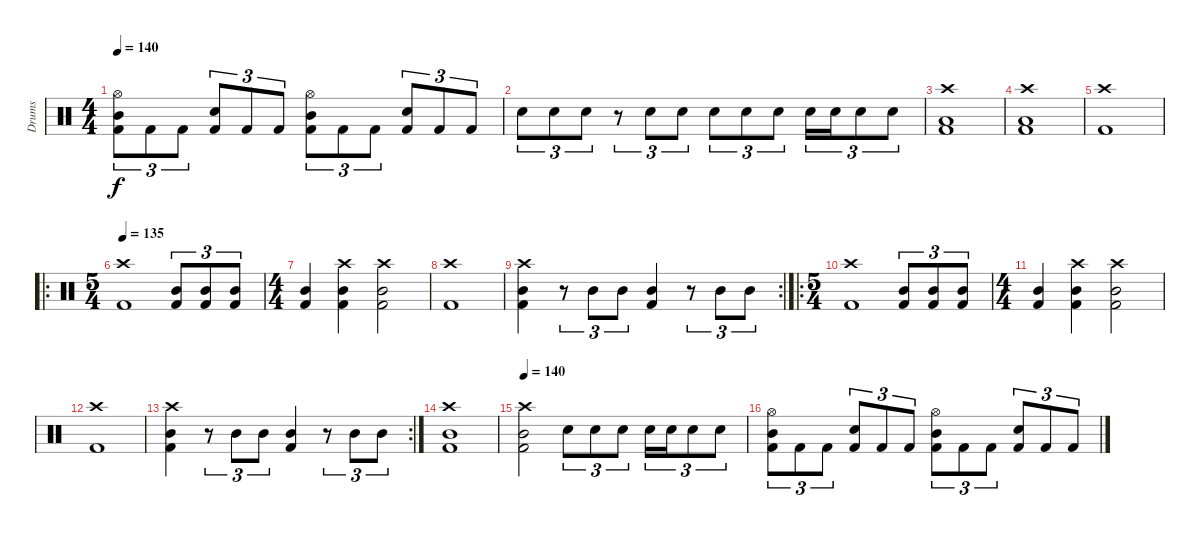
\track ("Drums" "Drums") {instrument percussion}
\staff {score}
\articulation defaults
\ts (4 4)
\tempo 140
\clef neutral
\ks c
("Hi-Hat (open)" "Mid Tom (hit)" "Kick (hit) 2").8{tu (3 2) dy f} "Kick (hit) 2".8{tu (3 2)} "Kick (hit) 2".8{tu (3 2)} ("Electric Snare (hit)" "Kick (hit) 2").8{tu (3 2)} "Kick (hit) 2".8{tu (3 2)} "Kick (hit) 2".8{tu (3 2)} ("Hi-Hat (open)" "Mid Tom (hit)" "Kick (hit) 2").8{tu (3 2)} "Kick (hit) 2".8{tu (3 2)} "Kick (hit) 2".8{tu (3 2)} ("Electric Snare (hit)" "Kick (hit) 2").8{tu (3 2)} "Kick (hit) 2".8{tu (3 2)} "Kick (hit) 2".8{tu (3 2)} |
"Snare (hit) 2".8{tu (3 2)} "Snare (hit) 2".8{tu (3 2)} "Snare (hit) 2".8{tu (3 2)} r.8{tu (3 2)} "Snare (hit) 2".8{tu (3 2)} "Snare (hit) 2".8{tu (3 2)} "Electric Snare (hit)".8{tu (3 2)} "Electric Snare (hit)".8{tu (3 2)} "Electric Snare (hit)".8{tu (3 2)} "Electric Snare (hit)".16{tu (3 2)} "Electric Snare (hit)".16{tu (3 2)} "Electric Snare (hit)".8{tu (3 2)} "Electric Snare (hit)".8{tu (3 2)} |
("Crash high (hit)" "Low Tom (hit)" "Kick (hit) 2").1 |
("Crash high (hit)" "Low Tom (hit)" "Kick (hit) 2").1 |
("Crash high (hit)" "Kick (hit) 2").1 |
\ro
\ts (5 4)
\tempo 135
("Crash high (hit)" "Kick (hit) 2").1 ("Mid Tom (hit)" "Kick (hit) 2").8{tu (3 2)} ("Mid Tom (hit)" "Kick (hit) 2").8{tu (3 2)} ("Mid Tom (hit)" "Kick (hit) 2").8{tu (3 2)} |
\ts (4 4)
("Mid Tom (hit)" "Kick (hit) 2").4 ("Crash high (hit)" "Mid Tom (hit)" "Kick (hit) 2").4 ("Crash high (hit)" "Mid Tom (hit)" "Kick (hit) 2").2 |
("Crash high (hit)" "Kick (hit) 2").1 |
\rc 2
("Crash high (hit)" "Mid Tom (hit)" "Kick (hit) 2").4 r.8{tu (3 2)} "Mid Tom (hit)".8{tu (3 2)} "Mid Tom (hit)".8{tu (3 2)} ("Mid Tom (hit)" "Kick (hit) 2").4 r.8{tu (3 2)} "Mid Tom (hit)".8{tu (3 2)} "Mid Tom (hit)".8{tu (3 2)} |
\ro
\ts (5 4)
("Crash high (hit)" "Kick (hit) 2").1 ("Mid Tom (hit)" "Kick (hit) 2").8{tu (3 2)} ("Mid Tom (hit)" "Kick (hit) 2").8{tu (3 2)} ("Mid Tom (hit)" "Kick (hit) 2").8{tu (3 2)} |
\ts (4 4)
("Mid Tom (hit)" "Kick (hit) 2").4 ("Crash high (hit)" "Mid Tom (hit)" "Kick (hit) 2").4 ("Crash high (hit)" "Mid Tom (hit)" "Kick (hit) 2").2 |
("Crash high (hit)" "Kick (hit) 2").1 |
\rc 2
("Crash high (hit)" "Mid Tom (hit)" "Kick (hit) 2").4 r.8{tu (3 2)} "Mid Tom (hit)".8{tu (3 2)} "Mid Tom (hit)".8{tu (3 2)} ("Mid Tom (hit)" "Kick (hit) 2").4 r.8{tu (3 2)} "Mid Tom (hit)".8{tu (3 2)} "Mid Tom (hit)".8{tu (3 2)} |
("Crash high (hit)" "Mid Tom (hit)" "Kick (hit) 2").1 |
\tempo 140
("Crash high (hit)" "Mid Tom (hit)" "Kick (hit) 2").2 "Electric Snare (hit)".8{tu (3 2)} "Electric Snare (hit)".8{tu (3 2)} "Electric Snare (hit)".8{tu (3 2)} "Electric Snare (hit)".16{tu (3 2)} "Electric Snare (hit)".16{tu (3 2)} "Electric Snare (hit)".8{tu (3 2)} "Electric Snare (hit)".8{tu (3 2)} |
("Hi-Hat (open)" "Mid Tom (hit)" "Kick (hit) 2").8{tu (3 2)} "Kick (hit) 2".8{tu (3 2)} "Kick (hit) 2".8{tu (3 2)} ("Electric Snare (hit)" "Kick (hit) 2").8{tu (3 2)} "Kick (hit) 2".8{tu (3 2)} "Kick (hit) 2".8{tu (3 2)} ("Hi-Hat (open)" "Mid Tom (hit)" "Kick (hit) 2").8{tu (3 2)} "Kick (hit) 2".8{tu (3 2)} "Kick (hit) 2".8{tu (3 2)} ("Electric Snare (hit)" "Kick (hit) 2").8{tu (3 2)} "Kick (hit) 2".8{tu (3 2)} "Kick (hit) 2".8{tu (3 2)}
